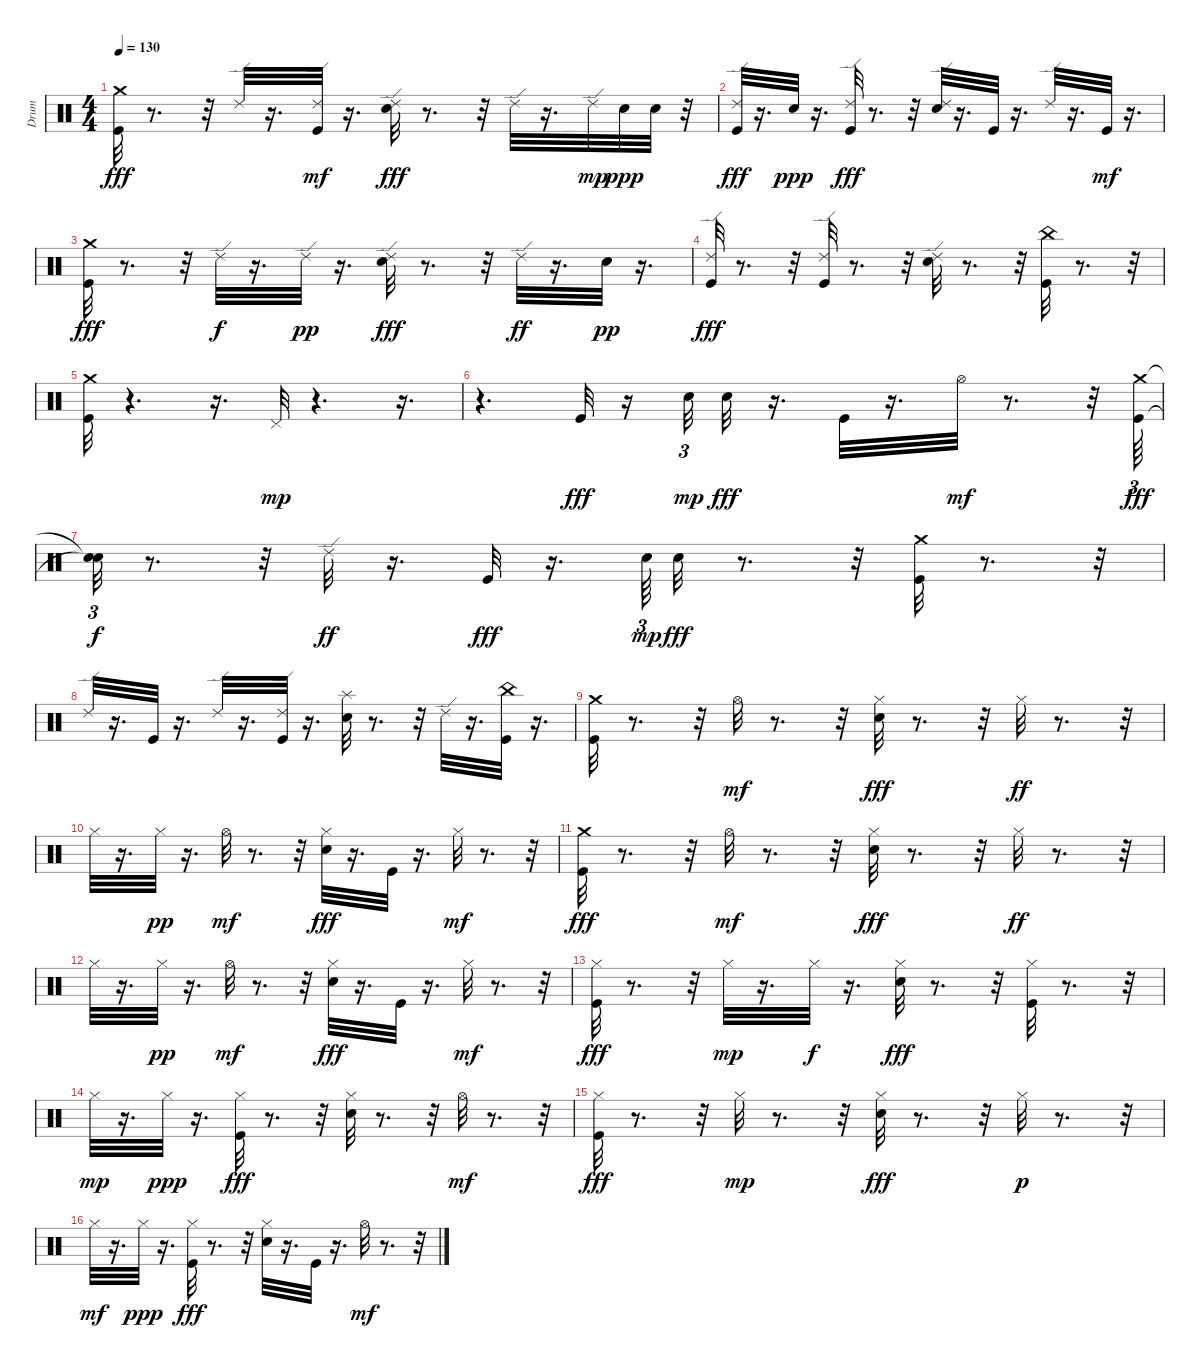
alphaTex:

\track ("Drum" "Drum") {instrument percussion}
\staff {score}
\articulation defaults
\ts (4 4)
\tempo 130
\clef neutral
\ks c
("Crash medium (hit)" "Kick (hit)").32{dy fff} r.8{d} r.32 "Ride (edge) 2".32 r.16{d} ("Ride (edge) 2" "Kick (hit)").32{dy mf} r.16{d} ("Ride (edge) 2" "Snare (hit) 2").32{dy fff} r.8{d} r.32 "Ride (edge) 2".32 r.16{d} "Ride (edge) 2".32{dy mp} "Snare (hit) 2".32{dy ppp} "Snare (hit) 2".32 r.32 |
("Ride (edge) 2" "Kick (hit)").32{dy fff} r.16{d} "Snare (hit) 2".32{dy ppp} r.16{d} ("Ride (edge) 2" "Kick (hit)").32{dy fff} r.8{d} r.32 ("Ride (edge) 2" "Snare (hit) 2").32 r.16{d} "Kick (hit)".32 r.16{d} "Ride (edge) 2".32 r.16{d} "Kick (hit)".32{dy mf} r.16{d} |
("Crash medium (hit)" "Kick (hit)").32{dy fff} r.8{d} r.32 "Ride (edge) 2".32{dy f} r.16{d} "Ride (edge) 2".32{dy pp} r.16{d} ("Ride (edge) 2" "Snare (hit) 2").32{dy fff} r.8{d} r.32 "Ride (edge) 2".32{dy ff} r.16{d} "Snare (hit) 2".32{dy pp} r.16{d} |
("Ride (edge) 2" "Kick (hit)").32{dy fff} r.8{d} r.32 ("Ride (edge) 2" "Kick (hit)").32 r.8{d} r.32 ("Ride (edge) 2" "Snare (hit) 2").32 r.8{d} r.32 ("Kick (hit)" "China (hit)").32 r.8{d} r.32 |
("Crash medium (hit)" "Kick (hit)").32 r.4{d} r.16{d} "Pedal Hi-Hat (hit)".32{dy mp} r.4{d} r.16{d} |
r.4{d} "Kick (hit)".32{dy fff} r.16 "Snare (hit) 2".32{tu (3 2) dy mp} "Snare (hit) 2".32{dy fff} r.16{d} "Kick (hit)".32 r.16{d} "Hi-Hat (open)".32{dy mf} r.8{d} r.32 ("Crash medium (hit)" "Kick (hit)").64{tu (3 2) dy fff} |
("Snare (hit)"{t} "Snare (hit)"{t}).32{tu (3 2) dy f} r.8{d} r.32 "Ride (edge) 2".32{dy ff} r.16{d} "Kick (hit)".32{dy fff} r.16{d} "Snare (hit) 2".64{tu (3 2) dy mp} "Snare (hit) 2".32{dy fff} r.8{d} r.32 ("Crash medium (hit)" "Kick (hit)").32 r.8{d} r.32 |
"Ride (edge) 2".32 r.16{d} "Kick (hit)".32 r.16{d} "Ride (edge) 2".32 r.16{d} ("Ride (edge) 2" "Kick (hit)").32 r.16{d} ("Splash (hit)" "Snare (hit) 2").32 r.8{d} r.32 "Ride (edge) 2".32 r.16{d} ("China (hit)" "Kick (hit)").32 r.16{d} |
("Crash medium (hit)" "Kick (hit)").32 r.8{d} r.32 "Hi-Hat (open)".32{dy mf} r.8{d} r.32 ("Hi-Hat (closed)" "Snare (hit) 2").32{dy fff} r.8{d} r.32 "Hi-Hat (closed)".32{dy ff} r.8{d} r.32 |
"Hi-Hat (closed)".32 r.16{d} "Hi-Hat (closed)".32{dy pp} r.16{d} "Hi-Hat (open)".32{dy mf} r.8{d} r.32 ("Hi-Hat (closed)" "Snare (hit) 2").32{dy fff} r.16{d} "Kick (hit)".32 r.16{d} "Hi-Hat (closed)".32{dy mf} r.8{d} r.32 |
("Crash medium (hit)" "Kick (hit)").32{dy fff} r.8{d} r.32 "Hi-Hat (open)".32{dy mf} r.8{d} r.32 ("Hi-Hat (closed)" "Snare (hit) 2").32{dy fff} r.8{d} r.32 "Hi-Hat (closed)".32{dy ff} r.8{d} r.32 |
"Hi-Hat (closed)".32 r.16{d} "Hi-Hat (closed)".32{dy pp} r.16{d} "Hi-Hat (open)".32{dy mf} r.8{d} r.32 ("Hi-Hat (closed)" "Snare (hit) 2").32{dy fff} r.16{d} "Kick (hit)".32 r.16{d} "Hi-Hat (closed)".32{dy mf} r.8{d} r.32 |
("Hi-Hat (closed)" "Kick (hit)").32{dy fff} r.8{d} r.32 "Hi-Hat (closed)".32{dy mp} r.16{d} "Hi-Hat (closed)".32{dy f} r.16{d} ("Hi-Hat (closed)" "Snare (hit) 2").32{dy fff} r.8{d} r.32 ("Hi-Hat (closed)" "Kick (hit)").32 r.8{d} r.32 |
"Hi-Hat (closed)".32{dy mp} r.16{d} "Hi-Hat (closed)".32{dy ppp} r.16{d} ("Hi-Hat (closed)" "Kick (hit)").32{dy fff} r.8{d} r.32 ("Hi-Hat (closed)" "Snare (hit) 2").32 r.8{d} r.32 "Hi-Hat (open)".32{dy mf} r.8{d} r.32 |
("Hi-Hat (closed)" "Kick (hit)").32{dy fff} r.8{d} r.32 "Hi-Hat (closed)".32{dy mp} r.8{d} r.32 ("Hi-Hat (closed)" "Snare (hit) 2").32{dy fff} r.8{d} r.32 "Hi-Hat (closed)".32{dy p} r.8{d} r.32 |
"Hi-Hat (closed)".32{dy mf} r.16{d} "Hi-Hat (closed)".32{dy ppp} r.16{d} ("Hi-Hat (closed)" "Kick (hit)").32{dy fff} r.8{d} r.32 ("Hi-Hat (closed)" "Snare (hit) 2").32 r.16{d} "Kick (hit)".32 r.16{d} "Hi-Hat (open)".32{dy mf} r.8{d} r.32
